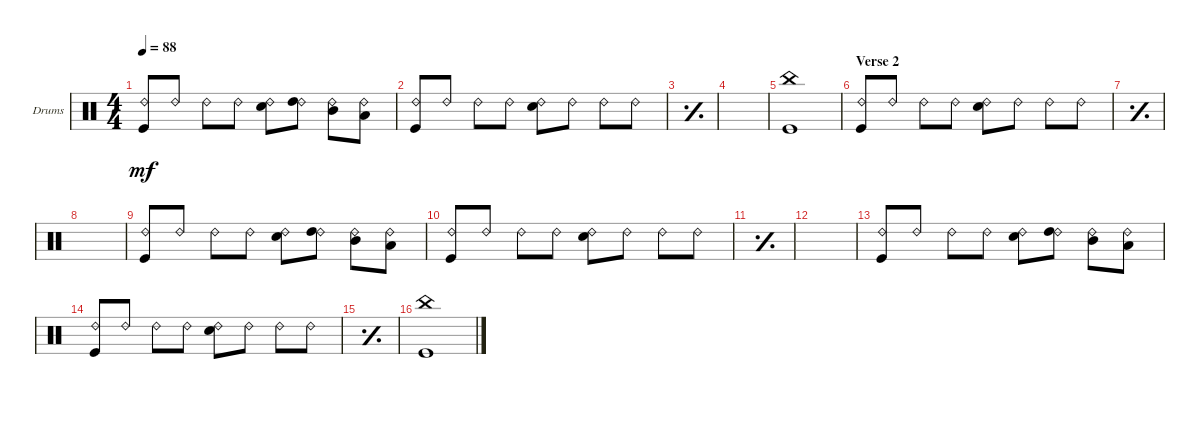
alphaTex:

\defaultSystemsLayout 4
\bracketExtendMode groupsimilarinstruments
\firstSystemTrackNameOrientation horizontal
\otherSystemsTrackNameOrientation horizontal
\track ("Drumkit" "Drums") {instrument percussion}
\staff {score}
\articulation defaults
\ts (4 4)
\tempo 88
\clef neutral
\ks c
("Ride (bell) 2" "Kick (hit)").8{dy mf} "Ride (bell) 2".8 "Ride (bell) 2".8 "Ride (bell) 2".8 ("Ride (bell) 2" "Snare (hit) 2").8 ("Ride (bell) 2" "High Tom (hit)").8 ("Ride (bell) 2" "Mid Tom (hit)").8 ("Ride (bell) 2" "Low Tom (hit)").8 |
("Ride (bell) 2" "Kick (hit)").8 "Ride (bell) 2".8 "Ride (bell) 2".8 "Ride (bell) 2".8 ("Ride (bell) 2" "Snare (hit) 2").8 "Ride (bell) 2".8 "Ride (bell) 2".8 "Ride (bell) 2".8 |
\simile simple
|
|
\simile none
("Kick (hit)" "China (hit)").1 |
\section ("" "Verse 2")
("Ride (bell) 2" "Kick (hit)").8 "Ride (bell) 2".8 "Ride (bell) 2".8 "Ride (bell) 2".8 ("Ride (bell) 2" "Snare (hit) 2").8 "Ride (bell) 2".8 "Ride (bell) 2".8 "Ride (bell) 2".8 |
\simile simple
|
|
\simile none
("Ride (bell) 2" "Kick (hit)").8 "Ride (bell) 2".8 "Ride (bell) 2".8 "Ride (bell) 2".8 ("Ride (bell) 2" "Snare (hit) 2").8 ("Ride (bell) 2" "High Tom (hit)").8 ("Ride (bell) 2" "Mid Tom (hit)").8 ("Ride (bell) 2" "Low Tom (hit)").8 |
("Ride (bell) 2" "Kick (hit)").8 "Ride (bell) 2".8 "Ride (bell) 2".8 "Ride (bell) 2".8 ("Ride (bell) 2" "Snare (hit) 2").8 "Ride (bell) 2".8 "Ride (bell) 2".8 "Ride (bell) 2".8 |
\simile simple
|
|
\simile none
("Ride (bell) 2" "Kick (hit)").8 "Ride (bell) 2".8 "Ride (bell) 2".8 "Ride (bell) 2".8 ("Ride (bell) 2" "Snare (hit) 2").8 ("Ride (bell) 2" "High Tom (hit)").8 ("Ride (bell) 2" "Mid Tom (hit)").8 ("Ride (bell) 2" "Low Tom (hit)").8 |
("Ride (bell) 2" "Kick (hit)").8 "Ride (bell) 2".8 "Ride (bell) 2".8 "Ride (bell) 2".8 ("Ride (bell) 2" "Snare (hit) 2").8 "Ride (bell) 2".8 "Ride (bell) 2".8 "Ride (bell) 2".8 |
\simile simple
|
\simile none
("Kick (hit)" "China (hit)").1
